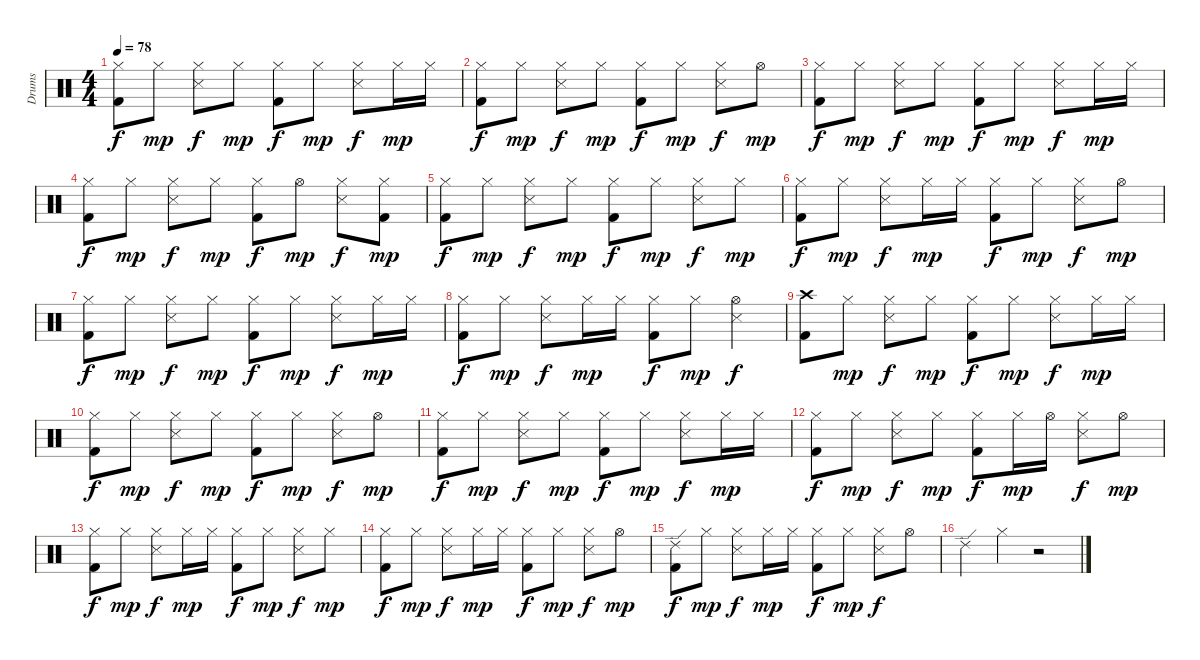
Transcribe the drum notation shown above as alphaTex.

\track ("Drums" "Drums") {instrument percussion}
\staff {score}
\articulation defaults
\ts (4 4)
\tempo 78
\clef neutral
\ks c
("Hi-Hat (closed)" "Kick (hit) 2").8{dy f} "Hi-Hat (closed)".8{dy mp} ("Hi-Hat (closed)" "Snare (side stick) 3").8{dy f} "Hi-Hat (closed)".8{dy mp} ("Hi-Hat (closed)" "Kick (hit) 2").8{dy f} "Hi-Hat (closed)".8{dy mp} ("Hi-Hat (closed)" "Snare (side stick) 3").8{dy f} "Hi-Hat (closed)".16{dy mp} "Hi-Hat (closed)".16 |
("Hi-Hat (closed)" "Kick (hit) 2").8{dy f} "Hi-Hat (closed)".8{dy mp} ("Hi-Hat (closed)" "Snare (side stick) 3").8{dy f} "Hi-Hat (closed)".8{dy mp} ("Hi-Hat (closed)" "Kick (hit) 2").8{dy f} "Hi-Hat (closed)".8{dy mp} ("Hi-Hat (closed)" "Snare (side stick) 3").8{dy f} "Hi-Hat (open)".8{dy mp} |
("Hi-Hat (closed)" "Kick (hit) 2").8{dy f} "Hi-Hat (closed)".8{dy mp} ("Hi-Hat (closed)" "Snare (side stick) 3").8{dy f} "Hi-Hat (closed)".8{dy mp} ("Hi-Hat (closed)" "Kick (hit) 2").8{dy f} "Hi-Hat (closed)".8{dy mp} ("Hi-Hat (closed)" "Snare (side stick) 3").8{dy f} "Hi-Hat (closed)".16{dy mp} "Hi-Hat (closed)".16 |
("Hi-Hat (closed)" "Kick (hit) 2").8{dy f} "Hi-Hat (closed)".8{dy mp} ("Hi-Hat (closed)" "Snare (side stick) 3").8{dy f} "Hi-Hat (closed)".8{dy mp} ("Hi-Hat (closed)" "Kick (hit) 2").8{dy f} "Hi-Hat (open)".8{dy mp} ("Hi-Hat (closed)" "Snare (side stick) 3").8{dy f} ("Hi-Hat (closed)" "Kick (hit) 2").8{dy mp} |
("Hi-Hat (closed)" "Kick (hit) 2").8{dy f} "Hi-Hat (closed)".8{dy mp} ("Hi-Hat (closed)" "Snare (side stick) 3").8{dy f} "Hi-Hat (closed)".8{dy mp} ("Hi-Hat (closed)" "Kick (hit) 2").8{dy f} "Hi-Hat (closed)".8{dy mp} ("Hi-Hat (closed)" "Snare (side stick) 3").8{dy f} "Hi-Hat (closed)".8{dy mp} |
("Hi-Hat (closed)" "Kick (hit) 2").8{dy f} "Hi-Hat (closed)".8{dy mp} ("Hi-Hat (closed)" "Snare (side stick) 3").8{dy f} "Hi-Hat (closed)".16{dy mp} "Hi-Hat (closed)".16 ("Hi-Hat (closed)" "Kick (hit) 2").8{dy f} "Hi-Hat (closed)".8{dy mp} ("Hi-Hat (closed)" "Snare (side stick) 3").8{dy f} "Hi-Hat (open)".8{dy mp} |
("Hi-Hat (closed)" "Kick (hit) 2").8{dy f} "Hi-Hat (closed)".8{dy mp} ("Hi-Hat (closed)" "Snare (side stick) 3").8{dy f} "Hi-Hat (closed)".8{dy mp} ("Hi-Hat (closed)" "Kick (hit) 2").8{dy f} "Hi-Hat (closed)".8{dy mp} ("Hi-Hat (closed)" "Snare (side stick) 3").8{dy f} "Hi-Hat (closed)".16{dy mp} "Hi-Hat (closed)".16 |
("Hi-Hat (closed)" "Kick (hit) 2").8{dy f} "Hi-Hat (closed)".8{dy mp} ("Hi-Hat (closed)" "Snare (side stick) 3").8{dy f} "Hi-Hat (closed)".16{dy mp} "Hi-Hat (closed)".16 ("Hi-Hat (closed)" "Kick (hit) 2").8{dy f} "Hi-Hat (closed)".8{dy mp} ("Hi-Hat (open)" "Snare (side stick) 3").4{dy f} |
("Crash high (hit)" "Kick (hit) 2").8 "Hi-Hat (closed)".8{dy mp} ("Hi-Hat (closed)" "Snare (side stick) 3").8{dy f} "Hi-Hat (closed)".8{dy mp} ("Hi-Hat (closed)" "Kick (hit) 2").8{dy f} "Hi-Hat (closed)".8{dy mp} ("Hi-Hat (closed)" "Snare (side stick) 3").8{dy f} "Hi-Hat (closed)".16{dy mp} "Hi-Hat (closed)".16 |
("Hi-Hat (closed)" "Kick (hit) 2").8{dy f} "Hi-Hat (closed)".8{dy mp} ("Hi-Hat (closed)" "Snare (side stick) 3").8{dy f} "Hi-Hat (closed)".8{dy mp} ("Hi-Hat (closed)" "Kick (hit) 2").8{dy f} "Hi-Hat (closed)".8{dy mp} ("Hi-Hat (closed)" "Snare (side stick) 3").8{dy f} "Hi-Hat (open)".8{dy mp} |
("Hi-Hat (closed)" "Kick (hit) 2").8{dy f} "Hi-Hat (closed)".8{dy mp} ("Hi-Hat (closed)" "Snare (side stick) 3").8{dy f} "Hi-Hat (closed)".8{dy mp} ("Hi-Hat (closed)" "Kick (hit) 2").8{dy f} "Hi-Hat (closed)".8{dy mp} ("Hi-Hat (closed)" "Snare (side stick) 3").8{dy f} "Hi-Hat (closed)".16{dy mp} "Hi-Hat (closed)".16 |
("Hi-Hat (closed)" "Kick (hit) 2").8{dy f} "Hi-Hat (closed)".8{dy mp} ("Hi-Hat (closed)" "Snare (side stick) 3").8{dy f} "Hi-Hat (closed)".8{dy mp} ("Hi-Hat (closed)" "Kick (hit) 2").8{dy f} "Hi-Hat (closed)".16{dy mp} "Hi-Hat (open)".16 ("Hi-Hat (closed)" "Snare (side stick) 3").8{dy f} "Hi-Hat (open)".8{dy mp} |
("Hi-Hat (closed)" "Kick (hit) 2").8{dy f} "Hi-Hat (closed)".8{dy mp} ("Hi-Hat (closed)" "Snare (side stick) 3").8{dy f} "Hi-Hat (closed)".16{dy mp} "Hi-Hat (closed)".16 ("Hi-Hat (closed)" "Kick (hit) 2").8{dy f} "Hi-Hat (closed)".8{dy mp} ("Hi-Hat (closed)" "Snare (side stick) 3").8{dy f} "Hi-Hat (closed)".8{dy mp} |
("Hi-Hat (closed)" "Kick (hit) 2").8{dy f} "Hi-Hat (closed)".8{dy mp} ("Hi-Hat (closed)" "Snare (side stick) 3").8{dy f} "Hi-Hat (closed)".16{dy mp} "Hi-Hat (closed)".16 ("Hi-Hat (closed)" "Kick (hit) 2").8{dy f} "Hi-Hat (closed)".8{dy mp} ("Hi-Hat (closed)" "Snare (side stick) 3").8{dy f} "Hi-Hat (open)".8{dy mp} |
("Ride (edge) 2" "Kick (hit) 2").8{dy f} "Hi-Hat (closed)".8{dy mp} ("Hi-Hat (closed)" "Snare (side stick) 3").8{dy f} "Hi-Hat (closed)".16{dy mp} "Hi-Hat (closed)".16 ("Hi-Hat (closed)" "Kick (hit) 2").8{dy f} "Hi-Hat (closed)".8{dy mp} ("Hi-Hat (closed)" "Snare (side stick) 3").8{dy f} "Hi-Hat (open)".8 |
"Ride (edge) 2".4 "Hi-Hat (closed)".4 r.2
